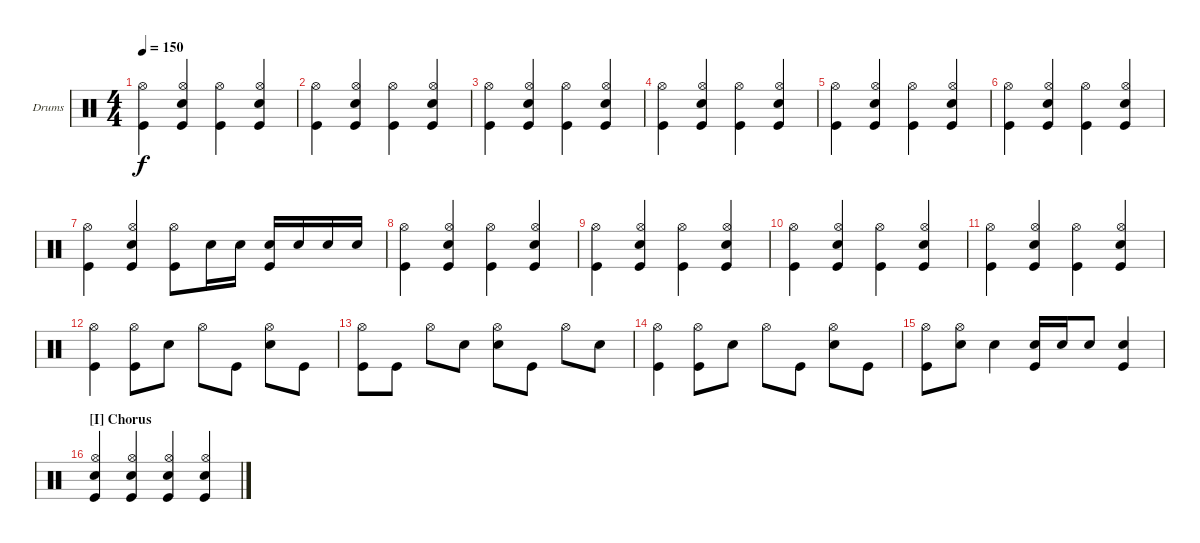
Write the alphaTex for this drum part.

\defaultSystemsLayout 4
\bracketExtendMode groupsimilarinstruments
\firstSystemTrackNameOrientation horizontal
\otherSystemsTrackNameOrientation horizontal
\track ("Drums" "Drums") {instrument percussion}
\staff {score}
\articulation defaults
\ts (4 4)
\tempo 150
\clef neutral
\scale
0.333333
\ks c
("Kick (hit)" "Hi-Hat (open)").4{dy f} ("Kick (hit)" "Snare (hit) 2" "Hi-Hat (open)").4 ("Kick (hit)" "Hi-Hat (open)").4 ("Kick (hit)" "Snare (hit) 2" "Hi-Hat (open)").4 |
\scale
0.333333 ("Kick (hit)" "Hi-Hat (open)").4 ("Kick (hit)" "Snare (hit) 2" "Hi-Hat (open)").4 ("Kick (hit)" "Hi-Hat (open)").4 ("Kick (hit)" "Snare (hit) 2" "Hi-Hat (open)").4 |
\scale
0.333333 ("Kick (hit)" "Hi-Hat (open)").4 ("Kick (hit)" "Snare (hit) 2" "Hi-Hat (open)").4 ("Kick (hit)" "Hi-Hat (open)").4 ("Kick (hit)" "Snare (hit) 2" "Hi-Hat (open)").4 |
\scale
0.333333 ("Kick (hit)" "Hi-Hat (open)").4 ("Kick (hit)" "Snare (hit) 2" "Hi-Hat (open)").4 ("Kick (hit)" "Hi-Hat (open)").4 ("Kick (hit)" "Snare (hit) 2" "Hi-Hat (open)").4 |
\scale
0.333333 ("Kick (hit)" "Hi-Hat (open)").4 ("Kick (hit)" "Snare (hit) 2" "Hi-Hat (open)").4 ("Kick (hit)" "Hi-Hat (open)").4 ("Kick (hit)" "Snare (hit) 2" "Hi-Hat (open)").4 |
\scale
0.333333 ("Kick (hit)" "Hi-Hat (open)").4 ("Kick (hit)" "Snare (hit) 2" "Hi-Hat (open)").4 ("Kick (hit)" "Hi-Hat (open)").4 ("Kick (hit)" "Snare (hit) 2" "Hi-Hat (open)").4 |
\scale
0.333333 ("Kick (hit)" "Hi-Hat (open)").4 ("Kick (hit)" "Snare (hit) 2" "Hi-Hat (open)").4 ("Kick (hit)" "Hi-Hat (open)").8 "Snare (hit) 2".16 "Snare (hit) 2".16 ("Snare (hit) 2" "Kick (hit)").16 "Snare (hit) 2".16 "Snare (hit) 2".16 "Snare (hit) 2".16 |
\scale
0.333333 ("Kick (hit)" "Hi-Hat (open)").4 ("Kick (hit)" "Snare (hit) 2" "Hi-Hat (open)").4 ("Kick (hit)" "Hi-Hat (open)").4 ("Kick (hit)" "Snare (hit) 2" "Hi-Hat (open)").4 |
\scale
0.333333 ("Kick (hit)" "Hi-Hat (open)").4 ("Kick (hit)" "Snare (hit) 2" "Hi-Hat (open)").4 ("Kick (hit)" "Hi-Hat (open)").4 ("Kick (hit)" "Snare (hit) 2" "Hi-Hat (open)").4 |
\scale
0.333333 ("Kick (hit)" "Hi-Hat (open)").4 ("Kick (hit)" "Snare (hit) 2" "Hi-Hat (open)").4 ("Kick (hit)" "Hi-Hat (open)").4 ("Kick (hit)" "Snare (hit) 2" "Hi-Hat (open)").4 |
\scale
0.333333 ("Kick (hit)" "Hi-Hat (open)").4 ("Kick (hit)" "Snare (hit) 2" "Hi-Hat (open)").4 ("Kick (hit)" "Hi-Hat (open)").4 ("Kick (hit)" "Snare (hit) 2" "Hi-Hat (open)").4 |
\scale
0.333333 ("Kick (hit)" "Hi-Hat (open)").4 ("Kick (hit)" "Hi-Hat (open)").8 "Snare (hit) 2".8 "Hi-Hat (open)".8 "Kick (hit)".8 ("Snare (hit) 2" "Hi-Hat (open)").8 "Kick (hit)".8 |
\scale
0.333333 ("Kick (hit)" "Hi-Hat (open)").8 "Kick (hit)".8 "Hi-Hat (open)".8 "Snare (hit) 2".8 ("Snare (hit) 2" "Hi-Hat (open)").8 "Kick (hit)".8 "Hi-Hat (open)".8 "Snare (hit) 2".8 |
\scale
0.333333 ("Kick (hit)" "Hi-Hat (open)").4 ("Kick (hit)" "Hi-Hat (open)").8 "Snare (hit) 2".8 "Hi-Hat (open)".8 "Kick (hit)".8 ("Snare (hit) 2" "Hi-Hat (open)").8 "Kick (hit)".8 |
\scale
0.333333 ("Kick (hit)" "Hi-Hat (open)").8 ("Snare (hit) 2" "Hi-Hat (open)").8 "Snare (hit) 2".4 ("Snare (hit) 2" "Kick (hit)").16 "Snare (hit) 2".16 "Snare (hit) 2".8 ("Snare (hit) 2" "Kick (hit)").4 |
\section ("I" "Chorus")
\scale
0.333333 ("Kick (hit)" "Hi-Hat (open)" "Snare (hit) 2").4 ("Kick (hit)" "Hi-Hat (open)" "Snare (hit) 2").4 ("Kick (hit)" "Hi-Hat (open)" "Snare (hit) 2").4 ("Kick (hit)" "Hi-Hat (open)" "Snare (hit) 2").4
